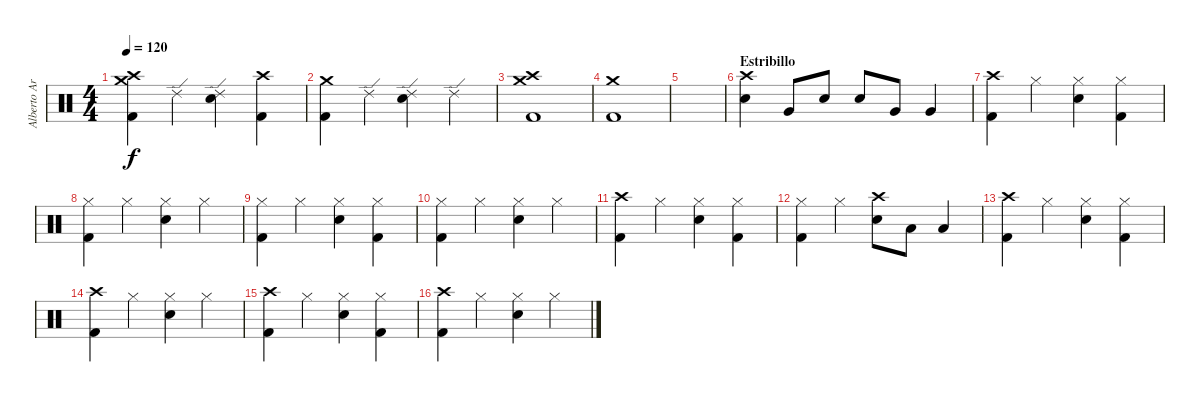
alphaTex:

\track ("Alberto Ardines (Batería)" "Alberto Ar") {instrument percussion}
\staff {score}
\articulation defaults
\ts (4 4)
\tempo 120
\clef neutral
\ks c
("Crash high (hit)" "Kick (hit) 2" "Crash medium (hit)").4{dy f} "Ride (edge) 2".4 ("Ride (edge) 2" "Electric Snare (hit)").4 ("Crash high (hit)" "Kick (hit) 2").4 |
("Crash medium (hit)" "Kick (hit) 2").4 "Ride (edge) 2".4 ("Ride (edge) 2" "Electric Snare (hit)").4 "Ride (edge) 2".4 |
("Crash high (hit)" "Kick (hit) 2" "Crash medium (hit)").1 |
("Crash medium (hit)" "Kick (hit) 2").1 |
|
\section ("" "Estribillo")
("Electric Snare (hit)" "Crash high (hit)").4 "Very Low Tom (hit)".8 "Electric Snare (hit)".8 "Electric Snare (hit)".8 "Very Low Tom (hit)".8 "Very Low Tom (hit)".4 |
("Crash high (hit)" "Kick (hit) 2").4 "Hi-Hat (closed)".4 ("Hi-Hat (closed)" "Electric Snare (hit)").4 ("Hi-Hat (closed)" "Kick (hit) 2").4 |
("Hi-Hat (closed)" "Kick (hit) 2").4 "Hi-Hat (closed)".4 ("Hi-Hat (closed)" "Electric Snare (hit)").4 "Hi-Hat (closed)".4 |
("Hi-Hat (closed)" "Kick (hit) 2").4 "Hi-Hat (closed)".4 ("Hi-Hat (closed)" "Electric Snare (hit)").4 ("Hi-Hat (closed)" "Kick (hit) 2").4 |
("Hi-Hat (closed)" "Kick (hit) 2").4 "Hi-Hat (closed)".4 ("Hi-Hat (closed)" "Electric Snare (hit)").4 "Hi-Hat (closed)".4 |
("Crash high (hit)" "Kick (hit) 2").4 "Hi-Hat (closed)".4 ("Hi-Hat (closed)" "Electric Snare (hit)").4 ("Hi-Hat (closed)" "Kick (hit) 2").4 |
("Hi-Hat (closed)" "Kick (hit) 2").4 "Hi-Hat (closed)".4 ("Crash high (hit)" "Electric Snare (hit)").8 "Low Floor Tom (hit)".8 "Low Floor Tom (hit)".4 |
("Crash high (hit)" "Kick (hit) 2").4 "Hi-Hat (closed)".4 ("Hi-Hat (closed)" "Electric Snare (hit)").4 ("Hi-Hat (closed)" "Kick (hit) 2").4 |
("Crash high (hit)" "Kick (hit) 2").4 "Hi-Hat (closed)".4 ("Hi-Hat (closed)" "Electric Snare (hit)").4 "Hi-Hat (closed)".4 |
("Crash high (hit)" "Kick (hit) 2").4 "Hi-Hat (closed)".4 ("Hi-Hat (closed)" "Electric Snare (hit)").4 ("Hi-Hat (closed)" "Kick (hit) 2").4 |
("Crash high (hit)" "Kick (hit) 2").4 "Hi-Hat (closed)".4 ("Hi-Hat (closed)" "Electric Snare (hit)").4 "Hi-Hat (closed)".4
